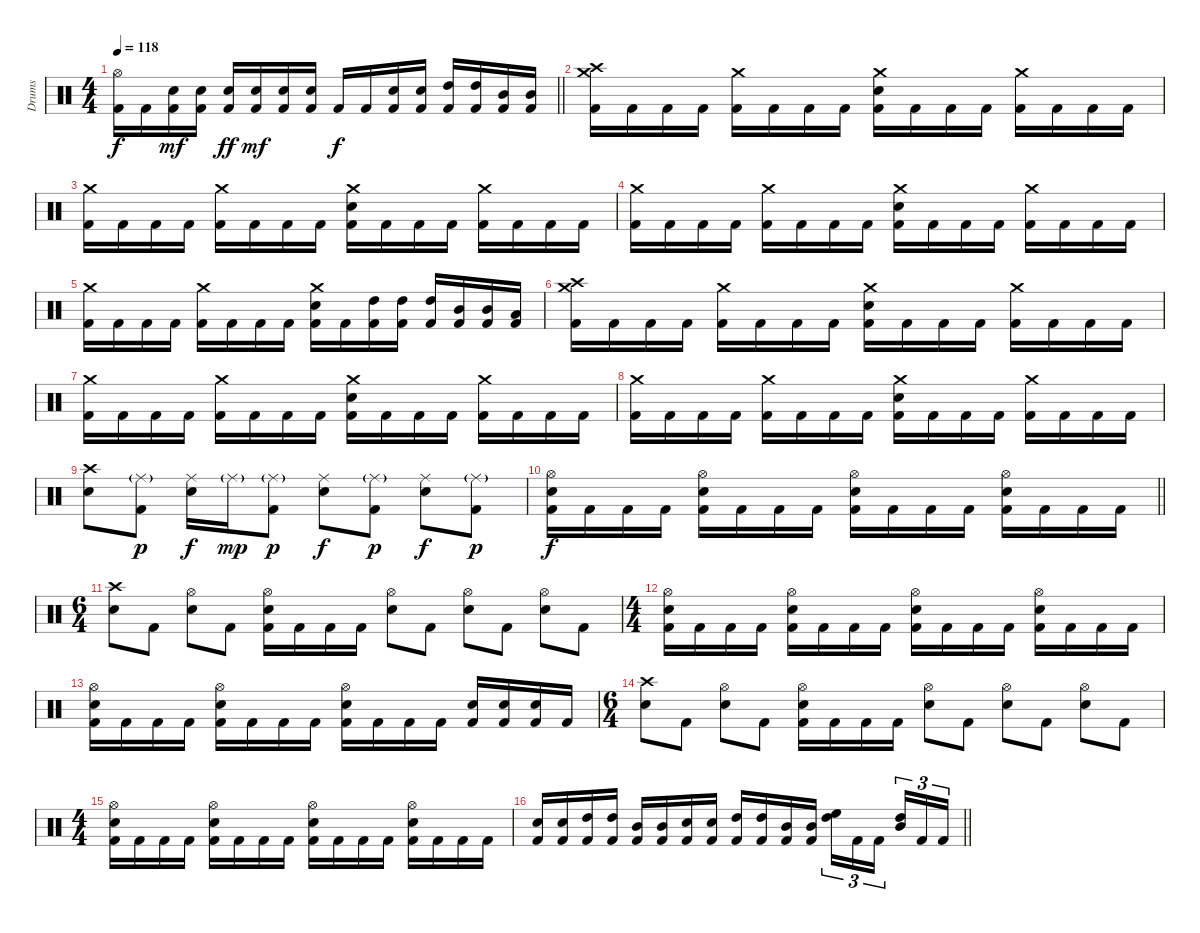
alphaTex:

\track ("Drums" "Drums") {instrument percussion}
\staff {score}
\articulation defaults
\ts (4 4)
\tempo 118
\clef neutral
\barLineRight lightlight
\ks c
("Hi-Hat (open)" "Kick (hit) 2").16{dy f} "Kick (hit) 2".16 ("Electric Snare (hit)" "Kick (hit) 2").16{dy mf} ("Electric Snare (hit)" "Kick (hit) 2").16 ("Electric Snare (hit)" "Kick (hit) 2").16{dy ff} ("Electric Snare (hit)" "Kick (hit) 2").16{dy mf} ("Electric Snare (hit)" "Kick (hit) 2").16 ("Electric Snare (hit)" "Kick (hit) 2").16 "Kick (hit) 2".16{dy f} "Kick (hit) 2".16 ("Electric Snare (hit)" "Kick (hit) 2").16 ("Electric Snare (hit)" "Kick (hit) 2").16 ("High Tom (hit)" "Kick (hit) 2").16 ("High Tom (hit)" "Kick (hit) 2").16 ("Mid Tom (hit)" "Kick (hit) 2").16 ("Mid Tom (hit)" "Kick (hit) 2").16 |
("Crash high (hit)" "Crash medium (hit)" "Kick (hit) 2").16 "Kick (hit) 2".16 "Kick (hit) 2".16 "Kick (hit) 2".16 ("Crash medium (hit)" "Kick (hit) 2").16 "Kick (hit) 2".16 "Kick (hit) 2".16 "Kick (hit) 2".16 ("Crash medium (hit)" "Electric Snare (hit)" "Kick (hit) 2").16 "Kick (hit) 2".16 "Kick (hit) 2".16 "Kick (hit) 2".16 ("Crash medium (hit)" "Kick (hit) 2").16 "Kick (hit) 2".16 "Kick (hit) 2".16 "Kick (hit) 2".16 |
("Crash medium (hit)" "Kick (hit) 2").16 "Kick (hit) 2".16 "Kick (hit) 2".16 "Kick (hit) 2".16 ("Crash medium (hit)" "Kick (hit) 2").16 "Kick (hit) 2".16 "Kick (hit) 2".16 "Kick (hit) 2".16 ("Crash medium (hit)" "Electric Snare (hit)" "Kick (hit) 2").16 "Kick (hit) 2".16 "Kick (hit) 2".16 "Kick (hit) 2".16 ("Crash medium (hit)" "Kick (hit) 2").16 "Kick (hit) 2".16 "Kick (hit) 2".16 "Kick (hit) 2".16 |
("Crash medium (hit)" "Kick (hit) 2").16 "Kick (hit) 2".16 "Kick (hit) 2".16 "Kick (hit) 2".16 ("Crash medium (hit)" "Kick (hit) 2").16 "Kick (hit) 2".16 "Kick (hit) 2".16 "Kick (hit) 2".16 ("Crash medium (hit)" "Electric Snare (hit)" "Kick (hit) 2").16 "Kick (hit) 2".16 "Kick (hit) 2".16 "Kick (hit) 2".16 ("Crash medium (hit)" "Kick (hit) 2").16 "Kick (hit) 2".16 "Kick (hit) 2".16 "Kick (hit) 2".16 |
("Crash medium (hit)" "Kick (hit) 2").16 "Kick (hit) 2".16 "Kick (hit) 2".16 "Kick (hit) 2".16 ("Crash medium (hit)" "Kick (hit) 2").16 "Kick (hit) 2".16 "Kick (hit) 2".16 "Kick (hit) 2".16 ("Crash medium (hit)" "Electric Snare (hit)" "Kick (hit) 2").16 "Kick (hit) 2".16 ("High Tom (hit)" "Kick (hit) 2").16 ("High Tom (hit)" "Kick (hit) 2").16 ("High Tom (hit)" "Kick (hit) 2").16 ("Mid Tom (hit)" "Kick (hit) 2").16 ("Mid Tom (hit)" "Kick (hit) 2").16 ("Low Tom (hit)" "Kick (hit) 2").16 |
("Crash high (hit)" "Crash medium (hit)" "Kick (hit) 2").16 "Kick (hit) 2".16 "Kick (hit) 2".16 "Kick (hit) 2".16 ("Crash medium (hit)" "Kick (hit) 2").16 "Kick (hit) 2".16 "Kick (hit) 2".16 "Kick (hit) 2".16 ("Crash medium (hit)" "Electric Snare (hit)" "Kick (hit) 2").16 "Kick (hit) 2".16 "Kick (hit) 2".16 "Kick (hit) 2".16 ("Crash medium (hit)" "Kick (hit) 2").16 "Kick (hit) 2".16 "Kick (hit) 2".16 "Kick (hit) 2".16 |
("Crash medium (hit)" "Kick (hit) 2").16 "Kick (hit) 2".16 "Kick (hit) 2".16 "Kick (hit) 2".16 ("Crash medium (hit)" "Kick (hit) 2").16 "Kick (hit) 2".16 "Kick (hit) 2".16 "Kick (hit) 2".16 ("Crash medium (hit)" "Electric Snare (hit)" "Kick (hit) 2").16 "Kick (hit) 2".16 "Kick (hit) 2".16 "Kick (hit) 2".16 ("Crash medium (hit)" "Kick (hit) 2").16 "Kick (hit) 2".16 "Kick (hit) 2".16 "Kick (hit) 2".16 |
("Crash medium (hit)" "Kick (hit) 2").16 "Kick (hit) 2".16 "Kick (hit) 2".16 "Kick (hit) 2".16 ("Crash medium (hit)" "Kick (hit) 2").16 "Kick (hit) 2".16 "Kick (hit) 2".16 "Kick (hit) 2".16 ("Crash medium (hit)" "Electric Snare (hit)" "Kick (hit) 2").16 "Kick (hit) 2".16 "Kick (hit) 2".16 "Kick (hit) 2".16 ("Crash medium (hit)" "Kick (hit) 2").16 "Kick (hit) 2".16 "Kick (hit) 2".16 "Kick (hit) 2".16 |
("Crash high (hit)" "Electric Snare (hit)").8 ("Ride (middle)"{g} "Kick (hit) 2").8{dy p} ("Ride (middle)" "Electric Snare (hit)").16{dy f} "Ride (middle)"{g}.16{dy mp} ("Ride (middle)"{g} "Kick (hit) 2").8{dy p} ("Ride (middle)" "Electric Snare (hit)").8{dy f} ("Ride (middle)"{g} "Kick (hit) 2").8{dy p} ("Ride (middle)" "Electric Snare (hit)").8{dy f} ("Ride (middle)"{g} "Kick (hit) 2").8{dy p} |
\barLineRight lightlight
("Hi-Hat (open)" "Electric Snare (hit)" "Kick (hit) 2").16{dy f} "Kick (hit) 2".16 "Kick (hit) 2".16 "Kick (hit) 2".16 ("Hi-Hat (open)" "Electric Snare (hit)" "Kick (hit) 2").16 "Kick (hit) 2".16 "Kick (hit) 2".16 "Kick (hit) 2".16 ("Hi-Hat (open)" "Electric Snare (hit)" "Kick (hit) 2").16 "Kick (hit) 2".16 "Kick (hit) 2".16 "Kick (hit) 2".16 ("Hi-Hat (open)" "Electric Snare (hit)" "Kick (hit) 2").16 "Kick (hit) 2".16 "Kick (hit) 2".16 "Kick (hit) 2".16 |
\ts (6 4)
("Crash high (hit)" "Electric Snare (hit)").8 "Kick (hit) 2".8 ("Hi-Hat (open)" "Electric Snare (hit)").8 "Kick (hit) 2".8 ("Hi-Hat (open)" "Electric Snare (hit)" "Kick (hit) 2").16 "Kick (hit) 2".16 "Kick (hit) 2".16 "Kick (hit) 2".16 ("Hi-Hat (open)" "Electric Snare (hit)").8 "Kick (hit) 2".8 ("Hi-Hat (open)" "Electric Snare (hit)").8 "Kick (hit) 2".8 ("Hi-Hat (open)" "Electric Snare (hit)").8 "Kick (hit) 2".8 |
\ts (4 4)
("Hi-Hat (open)" "Electric Snare (hit)" "Kick (hit) 2").16 "Kick (hit) 2".16 "Kick (hit) 2".16 "Kick (hit) 2".16 ("Hi-Hat (open)" "Electric Snare (hit)" "Kick (hit) 2").16 "Kick (hit) 2".16 "Kick (hit) 2".16 "Kick (hit) 2".16 ("Hi-Hat (open)" "Electric Snare (hit)" "Kick (hit) 2").16 "Kick (hit) 2".16 "Kick (hit) 2".16 "Kick (hit) 2".16 ("Hi-Hat (open)" "Electric Snare (hit)" "Kick (hit) 2").16 "Kick (hit) 2".16 "Kick (hit) 2".16 "Kick (hit) 2".16 |
("Hi-Hat (open)" "Electric Snare (hit)" "Kick (hit) 2").16 "Kick (hit) 2".16 "Kick (hit) 2".16 "Kick (hit) 2".16 ("Hi-Hat (open)" "Electric Snare (hit)" "Kick (hit) 2").16 "Kick (hit) 2".16 "Kick (hit) 2".16 "Kick (hit) 2".16 ("Hi-Hat (open)" "Electric Snare (hit)" "Kick (hit) 2").16 "Kick (hit) 2".16 "Kick (hit) 2".16 "Kick (hit) 2".16 ("Electric Snare (hit)" "Kick (hit) 2").16 ("Electric Snare (hit)" "Kick (hit) 2").16 ("Electric Snare (hit)" "Kick (hit) 2").16 "Kick (hit) 2".16 |
\ts (6 4)
("Crash high (hit)" "Electric Snare (hit)").8 "Kick (hit) 2".8 ("Hi-Hat (open)" "Electric Snare (hit)").8 "Kick (hit) 2".8 ("Hi-Hat (open)" "Electric Snare (hit)" "Kick (hit) 2").16 "Kick (hit) 2".16 "Kick (hit) 2".16 "Kick (hit) 2".16 ("Hi-Hat (open)" "Electric Snare (hit)").8 "Kick (hit) 2".8 ("Hi-Hat (open)" "Electric Snare (hit)").8 "Kick (hit) 2".8 ("Hi-Hat (open)" "Electric Snare (hit)").8 "Kick (hit) 2".8 |
\ts (4 4)
("Hi-Hat (open)" "Electric Snare (hit)" "Kick (hit) 2").16 "Kick (hit) 2".16 "Kick (hit) 2".16 "Kick (hit) 2".16 ("Hi-Hat (open)" "Electric Snare (hit)" "Kick (hit) 2").16 "Kick (hit) 2".16 "Kick (hit) 2".16 "Kick (hit) 2".16 ("Hi-Hat (open)" "Electric Snare (hit)" "Kick (hit) 2").16 "Kick (hit) 2".16 "Kick (hit) 2".16 "Kick (hit) 2".16 ("Hi-Hat (open)" "Electric Snare (hit)" "Kick (hit) 2").16 "Kick (hit) 2".16 "Kick (hit) 2".16 "Kick (hit) 2".16 |
\barLineRight lightlight
("Electric Snare (hit)" "Kick (hit) 2").16 ("Electric Snare (hit)" "Kick (hit) 2").16 ("High Tom (hit)" "Kick (hit) 2").16 ("High Tom (hit)" "Kick (hit) 2").16 ("Mid Tom (hit)" "Kick (hit) 2").16 ("Mid Tom (hit)" "Kick (hit) 2").16 ("Electric Snare (hit)" "Kick (hit) 2").16 ("Electric Snare (hit)" "Kick (hit) 2").16 ("High Tom (hit)" "Kick (hit) 2").16 ("High Tom (hit)" "Kick (hit) 2").16 ("Mid Tom (hit)" "Kick (hit) 2").16 ("Mid Tom (hit)" "Kick (hit) 2").16 ("High Floor Tom (hit)" "High Tom (hit)").16{tu (3 2)} "Kick (hit) 2".16{tu (3 2)} "Kick (hit) 2".16{tu (3 2)} ("High Tom (hit)" "Mid Tom (hit)").16{tu (3 2)} "Kick (hit) 2".16{tu (3 2)} "Kick (hit) 2".16{tu (3 2)}
